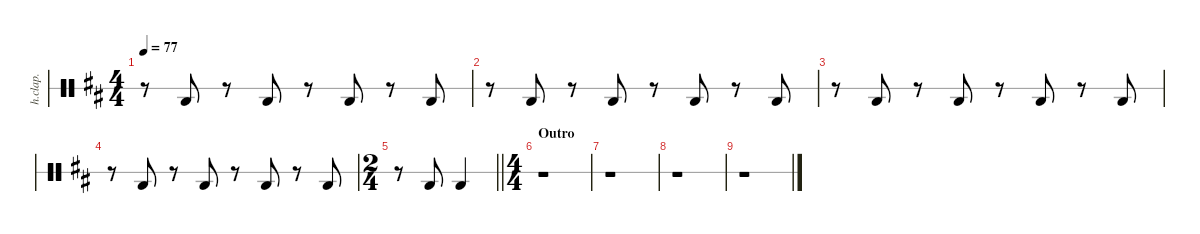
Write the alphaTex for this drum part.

\defaultSystemsLayout 4
\hideDynamics
\bracketExtendMode nobrackets
\otherSystemsTrackNameOrientation horizontal
\track ("Hand Clap" "h.clap.") {defaultSystemsLayout 8 instrument percussion}
\staff {score 1}
\articulation defaults
\ts (4 4)
\tempo 77
\clef neutral
\ks bminor
r.8{dy mf} "Hand Clap (hit)"{acc forcenatural}.8{beam split} r.8{beam split} "Hand Clap (hit)"{acc forcenatural}.8{beam split} r.8{beam split} "Hand Clap (hit)"{acc forcenatural}.8{beam split} r.8{beam split} "Hand Clap (hit)"{acc forcenatural}.8 |
r.8 "Hand Clap (hit)"{acc forcenatural}.8{beam split} r.8{beam split} "Hand Clap (hit)"{acc forcenatural}.8{beam split} r.8{beam split} "Hand Clap (hit)"{acc forcenatural}.8{beam split} r.8{beam split} "Hand Clap (hit)"{acc forcenatural}.8 |
r.8 "Hand Clap (hit)"{acc forcenatural}.8{beam split} r.8{beam split} "Hand Clap (hit)"{acc forcenatural}.8{beam split} r.8{beam split} "Hand Clap (hit)"{acc forcenatural}.8{beam split} r.8{beam split} "Hand Clap (hit)"{acc forcenatural}.8 |
r.8 "Hand Clap (hit)"{acc forcenatural}.8{beam split} r.8{beam split} "Hand Clap (hit)"{acc forcenatural}.8{beam split} r.8{beam split} "Hand Clap (hit)"{acc forcenatural}.8{beam split} r.8{beam split} "Hand Clap (hit)"{acc forcenatural}.8 |
\ts (2 4)
\beaming (8 2 2)
\barLineRight lightlight
r.8 "Hand Clap (hit)"{acc forcenatural}.8 "Hand Clap (hit)"{acc forcenatural}.4 |
\ts (4 4)
\section ("" "Outro")
r.1 |
r.1 |
r.1 |
r.1
